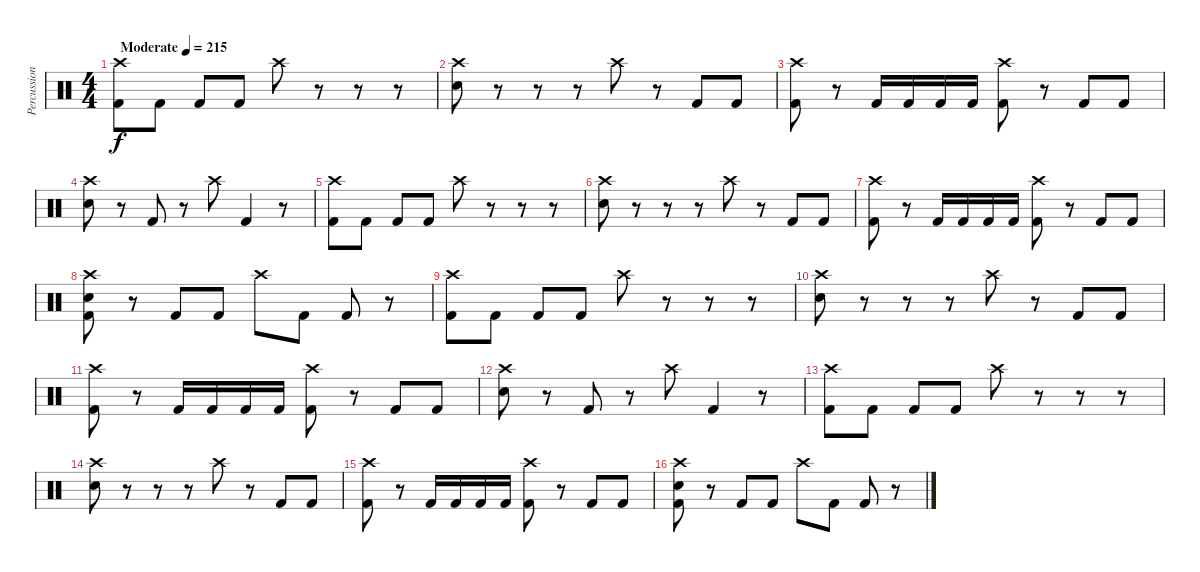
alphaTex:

\track ("Percussion" "Percussion") {instrument percussion}
\staff {score}
\articulation defaults
\ts (4 4)
\tempo (215 "Moderate")
\clef neutral
\ks c
("Crash high (hit)" "Kick (hit) 2").8{dy f} "Kick (hit) 2".8 "Kick (hit) 2".8 "Kick (hit) 2".8 "Crash high (hit)".8 r.8 r.8 r.8 |
("Crash high (hit)" "Electric Snare (hit)").8 r.8 r.8 r.8 "Crash high (hit)".8 r.8 "Kick (hit) 2".8 "Kick (hit) 2".8 |
("Crash high (hit)" "Kick (hit) 2").8 r.8 "Kick (hit) 2".16 "Kick (hit) 2".16 "Kick (hit) 2".16 "Kick (hit) 2".16 ("Crash high (hit)" "Kick (hit) 2").8 r.8 "Kick (hit) 2".8 "Kick (hit) 2".8 |
("Crash high (hit)" "Electric Snare (hit)").8 r.8 "Kick (hit) 2".8 r.8 "Crash high (hit)".8 "Kick (hit) 2".4 r.8 |
("Crash high (hit)" "Kick (hit) 2").8 "Kick (hit) 2".8 "Kick (hit) 2".8 "Kick (hit) 2".8 "Crash high (hit)".8 r.8 r.8 r.8 |
("Crash high (hit)" "Electric Snare (hit)").8 r.8 r.8 r.8 "Crash high (hit)".8 r.8 "Kick (hit) 2".8 "Kick (hit) 2".8 |
("Crash high (hit)" "Kick (hit) 2").8 r.8 "Kick (hit) 2".16 "Kick (hit) 2".16 "Kick (hit) 2".16 "Kick (hit) 2".16 ("Crash high (hit)" "Kick (hit) 2").8 r.8 "Kick (hit) 2".8 "Kick (hit) 2".8 |
("Crash high (hit)" "Electric Snare (hit)" "Kick (hit) 2").8 r.8 "Kick (hit) 2".8 "Kick (hit) 2".8 "Crash high (hit)".8 "Kick (hit) 2".8 "Kick (hit) 2".8 r.8 |
("Crash high (hit)" "Kick (hit) 2").8 "Kick (hit) 2".8 "Kick (hit) 2".8 "Kick (hit) 2".8 "Crash high (hit)".8 r.8 r.8 r.8 |
("Crash high (hit)" "Electric Snare (hit)").8 r.8 r.8 r.8 "Crash high (hit)".8 r.8 "Kick (hit) 2".8 "Kick (hit) 2".8 |
("Crash high (hit)" "Kick (hit) 2").8 r.8 "Kick (hit) 2".16 "Kick (hit) 2".16 "Kick (hit) 2".16 "Kick (hit) 2".16 ("Crash high (hit)" "Kick (hit) 2").8 r.8 "Kick (hit) 2".8 "Kick (hit) 2".8 |
("Crash high (hit)" "Electric Snare (hit)").8 r.8 "Kick (hit) 2".8 r.8 "Crash high (hit)".8 "Kick (hit) 2".4 r.8 |
("Crash high (hit)" "Kick (hit) 2").8 "Kick (hit) 2".8 "Kick (hit) 2".8 "Kick (hit) 2".8 "Crash high (hit)".8 r.8 r.8 r.8 |
("Crash high (hit)" "Electric Snare (hit)").8 r.8 r.8 r.8 "Crash high (hit)".8 r.8 "Kick (hit) 2".8 "Kick (hit) 2".8 |
("Crash high (hit)" "Kick (hit) 2").8 r.8 "Kick (hit) 2".16 "Kick (hit) 2".16 "Kick (hit) 2".16 "Kick (hit) 2".16 ("Crash high (hit)" "Kick (hit) 2").8 r.8 "Kick (hit) 2".8 "Kick (hit) 2".8 |
("Crash high (hit)" "Electric Snare (hit)" "Kick (hit) 2").8 r.8 "Kick (hit) 2".8 "Kick (hit) 2".8 "Crash high (hit)".8 "Kick (hit) 2".8 "Kick (hit) 2".8 r.8
